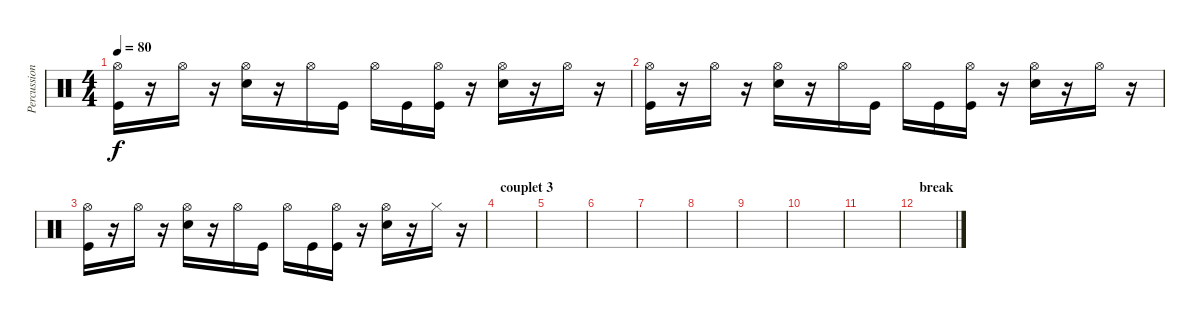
\track ("Percussions" "Percussion") {instrument percussion}
\staff {score}
\articulation defaults
\ts (4 4)
\tempo 80
\clef neutral
\ks c
("Hi-Hat (open)" "Kick (hit)").16{dy f} r.16 "Hi-Hat (open)".16 r.16 ("Hi-Hat (open)" "Electric Snare (hit)").16 r.16 "Hi-Hat (open)".16 "Kick (hit)".16 "Hi-Hat (open)".16 "Kick (hit)".16 ("Hi-Hat (open)" "Kick (hit)").16 r.16 ("Hi-Hat (open)" "Electric Snare (hit)").16 r.16 "Hi-Hat (open)".16 r.16 |
("Hi-Hat (open)" "Kick (hit)").16 r.16 "Hi-Hat (open)".16 r.16 ("Hi-Hat (open)" "Electric Snare (hit)").16 r.16 "Hi-Hat (open)".16 "Kick (hit)".16 "Hi-Hat (open)".16 "Kick (hit)".16 ("Hi-Hat (open)" "Kick (hit)").16 r.16 ("Hi-Hat (open)" "Electric Snare (hit)").16 r.16 "Hi-Hat (open)".16 r.16 |
("Hi-Hat (open)" "Kick (hit)").16 r.16 "Hi-Hat (open)".16 r.16 ("Hi-Hat (open)" "Electric Snare (hit)").16 r.16 "Hi-Hat (open)".16 "Kick (hit)".16 "Hi-Hat (open)".16 "Kick (hit)".16 ("Hi-Hat (open)" "Kick (hit)").16 r.16 ("Hi-Hat (open)" "Electric Snare (hit)").16 r.16 "Hi-Hat (closed)".16 r.16 |
\section ("" "couplet 3")
|
|
|
|
|
|
|
|
\section ("" "break ")
